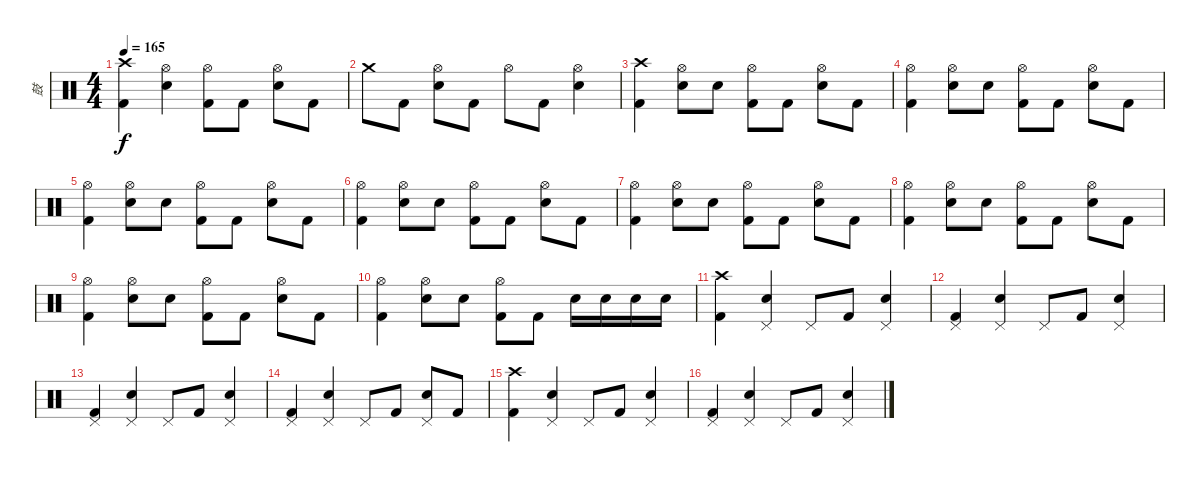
\track ("鼓" "鼓") {instrument percussion}
\staff {score}
\articulation defaults
\ts (4 4)
\tempo 165
\clef neutral
\ks c
("Crash high (hit)" "Kick (hit) 2").4{dy f} ("Hi-Hat (open)" "Snare (hit) 2").4 ("Hi-Hat (open)" "Kick (hit) 2").8 "Kick (hit) 2".8 ("Hi-Hat (open)" "Snare (hit) 2").8 "Kick (hit) 2".8 |
"Crash medium (hit)".8 "Kick (hit) 2".8 ("Hi-Hat (open)" "Snare (hit) 2").8 "Kick (hit) 2".8 "Hi-Hat (open)".8 "Kick (hit) 2".8 ("Hi-Hat (open)" "Snare (hit) 2").4 |
("Crash high (hit)" "Kick (hit) 2").4 ("Hi-Hat (open)" "Snare (hit) 2").8 "Snare (hit) 2".8 ("Hi-Hat (open)" "Kick (hit) 2").8 "Kick (hit) 2".8 ("Hi-Hat (open)" "Snare (hit) 2").8 "Kick (hit) 2".8 |
("Hi-Hat (open)" "Kick (hit) 2").4 ("Hi-Hat (open)" "Snare (hit) 2").8 "Snare (hit) 2".8 ("Hi-Hat (open)" "Kick (hit) 2").8 "Kick (hit) 2".8 ("Hi-Hat (open)" "Snare (hit) 2").8 "Kick (hit) 2".8 |
("Hi-Hat (open)" "Kick (hit) 2").4 ("Hi-Hat (open)" "Snare (hit) 2").8 "Snare (hit) 2".8 ("Hi-Hat (open)" "Kick (hit) 2").8 "Kick (hit) 2".8 ("Hi-Hat (open)" "Snare (hit) 2").8 "Kick (hit) 2".8 |
("Hi-Hat (open)" "Kick (hit) 2").4 ("Hi-Hat (open)" "Snare (hit) 2").8 "Snare (hit) 2".8 ("Hi-Hat (open)" "Kick (hit) 2").8 "Kick (hit) 2".8 ("Hi-Hat (open)" "Snare (hit) 2").8 "Kick (hit) 2".8 |
("Hi-Hat (open)" "Kick (hit) 2").4 ("Hi-Hat (open)" "Snare (hit) 2").8 "Snare (hit) 2".8 ("Hi-Hat (open)" "Kick (hit) 2").8 "Kick (hit) 2".8 ("Hi-Hat (open)" "Snare (hit) 2").8 "Kick (hit) 2".8 |
("Hi-Hat (open)" "Kick (hit) 2").4 ("Hi-Hat (open)" "Snare (hit) 2").8 "Snare (hit) 2".8 ("Hi-Hat (open)" "Kick (hit) 2").8 "Kick (hit) 2".8 ("Hi-Hat (open)" "Snare (hit) 2").8 "Kick (hit) 2".8 |
("Hi-Hat (open)" "Kick (hit) 2").4 ("Hi-Hat (open)" "Snare (hit) 2").8 "Snare (hit) 2".8 ("Hi-Hat (open)" "Kick (hit) 2").8 "Kick (hit) 2".8 ("Hi-Hat (open)" "Snare (hit) 2").8 "Kick (hit) 2".8 |
("Hi-Hat (open)" "Kick (hit) 2").4 ("Hi-Hat (open)" "Snare (hit) 2").8 "Snare (hit) 2".8 ("Hi-Hat (open)" "Kick (hit) 2").8 "Kick (hit) 2".8 "Snare (hit) 2".16 "Snare (hit) 2".16 "Snare (hit) 2".16 "Snare (hit) 2".16 |
("Crash high (hit)" "Kick (hit) 2").4 ("Pedal Hi-Hat (hit)" "Snare (hit) 2").4 "Pedal Hi-Hat (hit)".8 "Kick (hit) 2".8 ("Pedal Hi-Hat (hit)" "Snare (hit) 2").4 |
("Pedal Hi-Hat (hit)" "Kick (hit) 2").4 ("Pedal Hi-Hat (hit)" "Snare (hit) 2").4 "Pedal Hi-Hat (hit)".8 "Kick (hit) 2".8 ("Pedal Hi-Hat (hit)" "Snare (hit) 2").4 |
("Pedal Hi-Hat (hit)" "Kick (hit) 2").4 ("Pedal Hi-Hat (hit)" "Snare (hit) 2").4 "Pedal Hi-Hat (hit)".8 "Kick (hit) 2".8 ("Pedal Hi-Hat (hit)" "Snare (hit) 2").4 |
("Pedal Hi-Hat (hit)" "Kick (hit) 2").4 ("Pedal Hi-Hat (hit)" "Snare (hit) 2").4 "Pedal Hi-Hat (hit)".8 "Kick (hit) 2".8 ("Pedal Hi-Hat (hit)" "Snare (hit) 2").8 "Kick (hit) 2".8 |
("Crash high (hit)" "Kick (hit) 2").4 ("Pedal Hi-Hat (hit)" "Snare (hit) 2").4 "Pedal Hi-Hat (hit)".8 "Kick (hit) 2".8 ("Pedal Hi-Hat (hit)" "Snare (hit) 2").4 |
("Pedal Hi-Hat (hit)" "Kick (hit) 2").4 ("Pedal Hi-Hat (hit)" "Snare (hit) 2").4 "Pedal Hi-Hat (hit)".8 "Kick (hit) 2".8 ("Pedal Hi-Hat (hit)" "Snare (hit) 2").4
